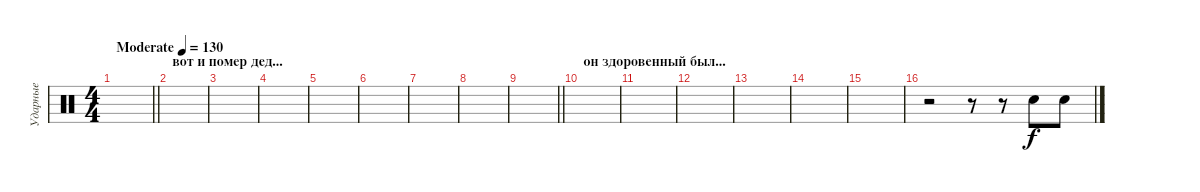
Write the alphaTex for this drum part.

\track ("Ударные" "Ударные") {instrument percussion}
\staff {score}
\articulation defaults
\ts (4 4)
\tempo (130 "Moderate")
\clef neutral
\barLineRight lightlight
\ks c
|
\section ("" "вот и помер дед...")
|
|
|
|
|
|
|
\barLineRight lightlight
|
\section ("" "он здоровенный был...")
|
|
|
|
|
|
r.2 r.8 r.8 "Snare (hit) 2".8 "Snare (hit) 2".8
